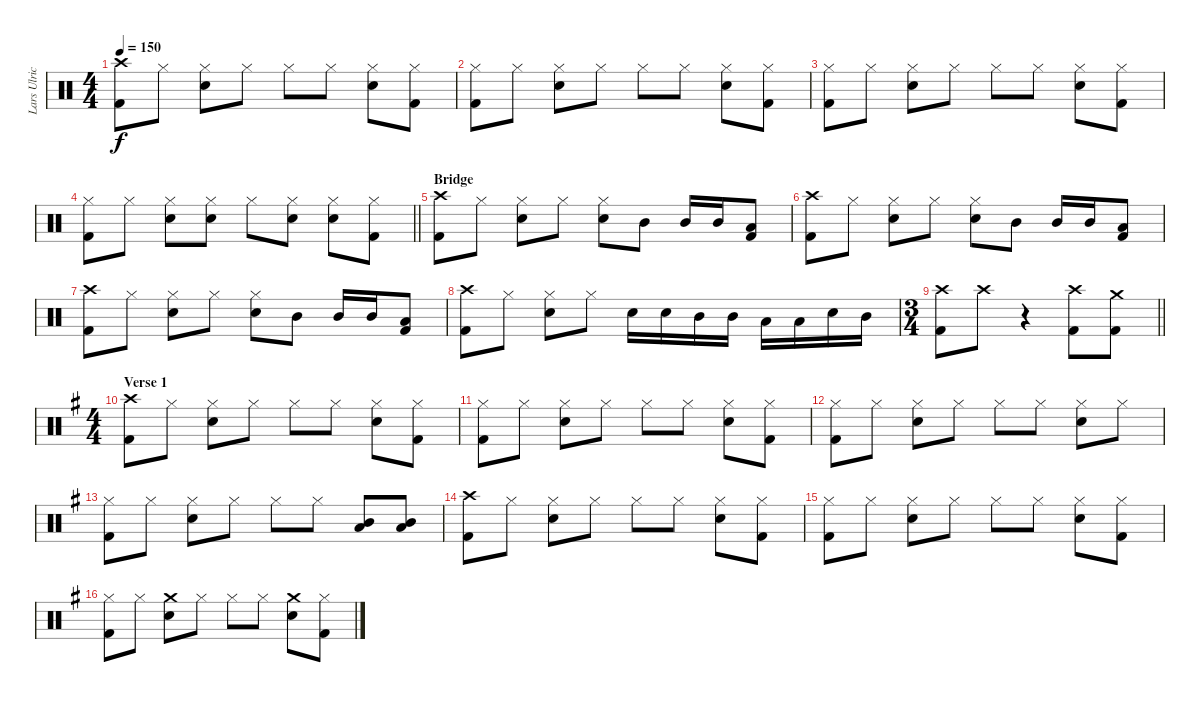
\track ("Lars Ulrich" "Lars Ulric") {instrument percussion}
\staff {score}
\articulation defaults
\ts (4 4)
\tempo 150
\clef neutral
\ks c
("Crash high (hit)" "Kick (hit) 2").8{dy f volume 16} "Hi-Hat (closed)".8 ("Hi-Hat (closed)" "Snare (hit) 2").8 "Hi-Hat (closed)".8 "Hi-Hat (closed)".8 "Hi-Hat (closed)".8 ("Hi-Hat (closed)" "Snare (hit) 2").8 ("Hi-Hat (closed)" "Kick (hit) 2").8 |
("Hi-Hat (closed)" "Kick (hit) 2").8 "Hi-Hat (closed)".8 ("Hi-Hat (closed)" "Snare (hit) 2").8 "Hi-Hat (closed)".8 "Hi-Hat (closed)".8 "Hi-Hat (closed)".8 ("Hi-Hat (closed)" "Snare (hit) 2").8 ("Hi-Hat (closed)" "Kick (hit) 2").8 |
("Hi-Hat (closed)" "Kick (hit) 2").8 "Hi-Hat (closed)".8 ("Hi-Hat (closed)" "Snare (hit) 2").8 "Hi-Hat (closed)".8 "Hi-Hat (closed)".8 "Hi-Hat (closed)".8 ("Hi-Hat (closed)" "Snare (hit) 2").8 ("Hi-Hat (closed)" "Kick (hit) 2").8 |
\barLineRight lightlight
("Hi-Hat (closed)" "Kick (hit) 2").8 "Hi-Hat (closed)".8 ("Hi-Hat (closed)" "Snare (hit) 2").8 ("Hi-Hat (closed)" "Snare (hit) 2").8 "Hi-Hat (closed)".8 ("Hi-Hat (closed)" "Snare (hit) 2").8 ("Hi-Hat (closed)" "Snare (hit) 2").8 ("Hi-Hat (closed)" "Kick (hit) 2").8 |
\section ("" "Bridge")
("Crash high (hit)" "Kick (hit) 2").8 "Hi-Hat (closed)".8 ("Hi-Hat (closed)" "Snare (hit) 2").8 "Hi-Hat (closed)".8 ("Hi-Hat (closed)" "Snare (hit) 2").8 "Mid Tom (hit)".8 "Mid Tom (hit)".16 "Mid Tom (hit)".16 ("Low Tom (hit)" "Kick (hit) 2").8 |
("Crash high (hit)" "Kick (hit) 2").8 "Hi-Hat (closed)".8 ("Hi-Hat (closed)" "Snare (hit) 2").8 "Hi-Hat (closed)".8 ("Hi-Hat (closed)" "Snare (hit) 2").8 "Mid Tom (hit)".8 "Mid Tom (hit)".16 "Mid Tom (hit)".16 ("Low Tom (hit)" "Kick (hit) 2").8 |
("Crash high (hit)" "Kick (hit) 2").8 "Hi-Hat (closed)".8 ("Hi-Hat (closed)" "Snare (hit) 2").8 "Hi-Hat (closed)".8 ("Hi-Hat (closed)" "Snare (hit) 2").8 "Mid Tom (hit)".8 "Mid Tom (hit)".16 "Mid Tom (hit)".16 ("Low Tom (hit)" "Kick (hit) 2").8 |
("Crash high (hit)" "Kick (hit) 2").8 "Hi-Hat (closed)".8 ("Hi-Hat (closed)" "Snare (hit) 2").8 "Hi-Hat (closed)".8 "Snare (hit) 2".16 "Snare (hit) 2".16 "Mid Tom (hit)".16 "Mid Tom (hit)".16 "Low Tom (hit)".16 "Low Tom (hit)".16 "Snare (hit) 2".16 "Mid Tom (hit)".16 |
\ts (3 4)
\barLineRight lightlight
("Crash high (hit)" "Kick (hit) 2").8 "Crash high (hit)".8{volume 0} r.4 ("Crash high (hit)" "Kick (hit) 2").8{volume 16} ("Crash medium (hit)" "Kick (hit) 2").8 |
\ts (4 4)
\section ("" "Verse 1")
\ks g
("Crash high (hit)" "Kick (hit) 2").8 "Hi-Hat (closed)".8 ("Hi-Hat (closed)" "Snare (hit) 2").8 "Hi-Hat (closed)".8 "Hi-Hat (closed)".8 "Hi-Hat (closed)".8 ("Hi-Hat (closed)" "Snare (hit) 2").8 ("Hi-Hat (closed)" "Kick (hit) 2").8 |
("Hi-Hat (closed)" "Kick (hit) 2").8 "Hi-Hat (closed)".8 ("Hi-Hat (closed)" "Snare (hit) 2").8 "Hi-Hat (closed)".8 "Hi-Hat (closed)".8 "Hi-Hat (closed)".8 ("Hi-Hat (closed)" "Snare (hit) 2").8 ("Hi-Hat (closed)" "Kick (hit) 2").8 |
("Hi-Hat (closed)" "Kick (hit) 2").8 "Hi-Hat (closed)".8 ("Hi-Hat (closed)" "Snare (hit) 2").8 "Hi-Hat (closed)".8 "Hi-Hat (closed)".8 "Hi-Hat (closed)".8 ("Hi-Hat (closed)" "Snare (hit) 2").8 "Hi-Hat (closed)".8 |
("Hi-Hat (closed)" "Kick (hit) 2").8 "Hi-Hat (closed)".8 ("Hi-Hat (closed)" "Snare (hit) 2").8 "Hi-Hat (closed)".8 "Hi-Hat (closed)".8 "Hi-Hat (closed)".8 ("Low Tom (hit)" "Mid Tom (hit)").8 ("Low Tom (hit)" "Mid Tom (hit)").8 |
("Crash high (hit)" "Kick (hit) 2").8 "Hi-Hat (closed)".8 ("Hi-Hat (closed)" "Snare (hit) 2").8 "Hi-Hat (closed)".8 "Hi-Hat (closed)".8 "Hi-Hat (closed)".8 ("Hi-Hat (closed)" "Snare (hit) 2").8 ("Hi-Hat (closed)" "Kick (hit) 2").8 |
("Hi-Hat (closed)" "Kick (hit) 2").8 "Hi-Hat (closed)".8 ("Hi-Hat (closed)" "Snare (hit) 2").8 "Hi-Hat (closed)".8 "Hi-Hat (closed)".8 "Hi-Hat (closed)".8 ("Hi-Hat (closed)" "Snare (hit) 2").8 ("Hi-Hat (closed)" "Kick (hit) 2").8 |
("Hi-Hat (closed)" "Kick (hit) 2").8 "Hi-Hat (closed)".8 ("Crash medium (hit)" "Snare (hit) 2").8 "Hi-Hat (closed)".8 "Hi-Hat (closed)".8 "Hi-Hat (closed)".8 ("Crash medium (hit)" "Snare (hit) 2").8 ("Hi-Hat (closed)" "Kick (hit) 2").8
